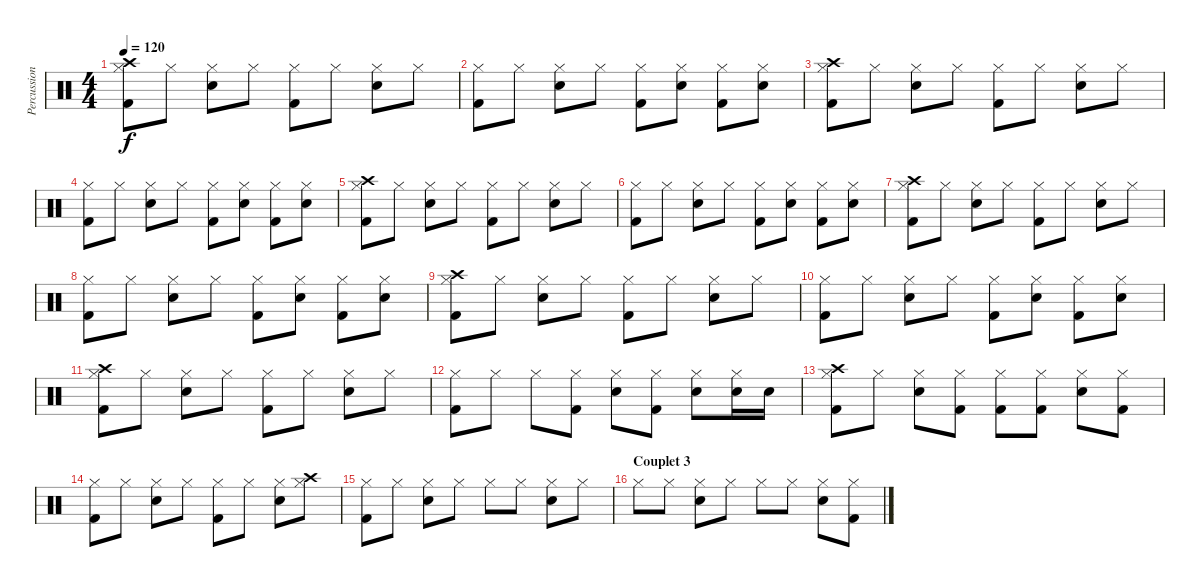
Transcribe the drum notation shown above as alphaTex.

\track ("Percussions" "Percussion") {instrument percussion}
\staff {score}
\articulation defaults
\ts (4 4)
\tempo 120
\clef neutral
\ks c
("Crash high (hit)" "Hi-Hat (closed)" "Kick (hit) 2").8{dy f} "Hi-Hat (closed)".8 ("Hi-Hat (closed)" "Electric Snare (hit)").8 "Hi-Hat (closed)".8 ("Hi-Hat (closed)" "Kick (hit) 2").8 "Hi-Hat (closed)".8 ("Hi-Hat (closed)" "Electric Snare (hit)").8 "Hi-Hat (closed)".8 |
("Hi-Hat (closed)" "Kick (hit) 2").8 "Hi-Hat (closed)".8 ("Hi-Hat (closed)" "Electric Snare (hit)").8 "Hi-Hat (closed)".8 ("Hi-Hat (closed)" "Kick (hit) 2").8 ("Hi-Hat (closed)" "Electric Snare (hit)").8 ("Hi-Hat (closed)" "Kick (hit) 2").8 ("Hi-Hat (closed)" "Electric Snare (hit)").8 |
("Crash high (hit)" "Hi-Hat (closed)" "Kick (hit) 2").8 "Hi-Hat (closed)".8 ("Hi-Hat (closed)" "Electric Snare (hit)").8 "Hi-Hat (closed)".8 ("Hi-Hat (closed)" "Kick (hit) 2").8 "Hi-Hat (closed)".8 ("Hi-Hat (closed)" "Electric Snare (hit)").8 "Hi-Hat (closed)".8 |
("Hi-Hat (closed)" "Kick (hit) 2").8 "Hi-Hat (closed)".8 ("Hi-Hat (closed)" "Electric Snare (hit)").8 "Hi-Hat (closed)".8 ("Hi-Hat (closed)" "Kick (hit) 2").8 ("Hi-Hat (closed)" "Electric Snare (hit)").8 ("Hi-Hat (closed)" "Kick (hit) 2").8 ("Hi-Hat (closed)" "Electric Snare (hit)").8 |
("Crash high (hit)" "Hi-Hat (closed)" "Kick (hit) 2").8 "Hi-Hat (closed)".8 ("Hi-Hat (closed)" "Electric Snare (hit)").8 "Hi-Hat (closed)".8 ("Hi-Hat (closed)" "Kick (hit) 2").8 "Hi-Hat (closed)".8 ("Hi-Hat (closed)" "Electric Snare (hit)").8 "Hi-Hat (closed)".8 |
("Hi-Hat (closed)" "Kick (hit) 2").8 "Hi-Hat (closed)".8 ("Hi-Hat (closed)" "Electric Snare (hit)").8 "Hi-Hat (closed)".8 ("Hi-Hat (closed)" "Kick (hit) 2").8 ("Hi-Hat (closed)" "Electric Snare (hit)").8 ("Hi-Hat (closed)" "Kick (hit) 2").8 ("Hi-Hat (closed)" "Electric Snare (hit)").8 |
("Crash high (hit)" "Hi-Hat (closed)" "Kick (hit) 2").8 "Hi-Hat (closed)".8 ("Hi-Hat (closed)" "Electric Snare (hit)").8 "Hi-Hat (closed)".8 ("Hi-Hat (closed)" "Kick (hit) 2").8 "Hi-Hat (closed)".8 ("Hi-Hat (closed)" "Electric Snare (hit)").8 "Hi-Hat (closed)".8 |
("Hi-Hat (closed)" "Kick (hit) 2").8 "Hi-Hat (closed)".8 ("Hi-Hat (closed)" "Electric Snare (hit)").8 "Hi-Hat (closed)".8 ("Hi-Hat (closed)" "Kick (hit) 2").8 ("Hi-Hat (closed)" "Electric Snare (hit)").8 ("Hi-Hat (closed)" "Kick (hit) 2").8 ("Hi-Hat (closed)" "Electric Snare (hit)").8 |
("Crash high (hit)" "Hi-Hat (closed)" "Kick (hit) 2").8 "Hi-Hat (closed)".8 ("Hi-Hat (closed)" "Electric Snare (hit)").8 "Hi-Hat (closed)".8 ("Hi-Hat (closed)" "Kick (hit) 2").8 "Hi-Hat (closed)".8 ("Hi-Hat (closed)" "Electric Snare (hit)").8 "Hi-Hat (closed)".8 |
("Hi-Hat (closed)" "Kick (hit) 2").8 "Hi-Hat (closed)".8 ("Hi-Hat (closed)" "Electric Snare (hit)").8 "Hi-Hat (closed)".8 ("Hi-Hat (closed)" "Kick (hit) 2").8 ("Hi-Hat (closed)" "Electric Snare (hit)").8 ("Hi-Hat (closed)" "Kick (hit) 2").8 ("Hi-Hat (closed)" "Electric Snare (hit)").8 |
("Crash high (hit)" "Hi-Hat (closed)" "Kick (hit) 2").8 "Hi-Hat (closed)".8 ("Hi-Hat (closed)" "Electric Snare (hit)").8 "Hi-Hat (closed)".8 ("Hi-Hat (closed)" "Kick (hit) 2").8 "Hi-Hat (closed)".8 ("Hi-Hat (closed)" "Electric Snare (hit)").8 "Hi-Hat (closed)".8 |
("Hi-Hat (closed)" "Kick (hit) 2").8 "Hi-Hat (closed)".8 "Hi-Hat (closed)".8 ("Hi-Hat (closed)" "Kick (hit) 2").8 ("Hi-Hat (closed)" "Electric Snare (hit)").8 ("Hi-Hat (closed)" "Kick (hit) 2").8 ("Hi-Hat (closed)" "Electric Snare (hit)").8 ("Hi-Hat (closed)" "Electric Snare (hit)").16 "Electric Snare (hit)".16 |
("Crash high (hit)" "Hi-Hat (closed)" "Kick (hit) 2").8 "Hi-Hat (closed)".8 ("Hi-Hat (closed)" "Electric Snare (hit)").8 ("Hi-Hat (closed)" "Kick (hit) 2").8 ("Hi-Hat (closed)" "Kick (hit) 2").8 ("Hi-Hat (closed)" "Kick (hit) 2").8 ("Hi-Hat (closed)" "Electric Snare (hit)").8 ("Hi-Hat (closed)" "Kick (hit) 2").8 |
("Hi-Hat (closed)" "Kick (hit) 2").8 "Hi-Hat (closed)".8 ("Hi-Hat (closed)" "Electric Snare (hit)").8 "Hi-Hat (closed)".8 ("Hi-Hat (closed)" "Kick (hit) 2").8 "Hi-Hat (closed)".8 ("Hi-Hat (closed)" "Electric Snare (hit)").8 ("Crash high (hit)" "Hi-Hat (closed)").8 |
("Hi-Hat (closed)" "Kick (hit) 2").8 "Hi-Hat (closed)".8 ("Hi-Hat (closed)" "Electric Snare (hit)").8 "Hi-Hat (closed)".8 "Hi-Hat (closed)".8 "Hi-Hat (closed)".8 ("Hi-Hat (closed)" "Electric Snare (hit)").8 "Hi-Hat (closed)".8 |
\section ("" "Couplet 3")
"Hi-Hat (closed)".8 "Hi-Hat (closed)".8 ("Hi-Hat (closed)" "Electric Snare (hit)").8 "Hi-Hat (closed)".8 "Hi-Hat (closed)".8 "Hi-Hat (closed)".8 ("Hi-Hat (closed)" "Electric Snare (hit)").8 ("Hi-Hat (closed)" "Kick (hit) 2").8
